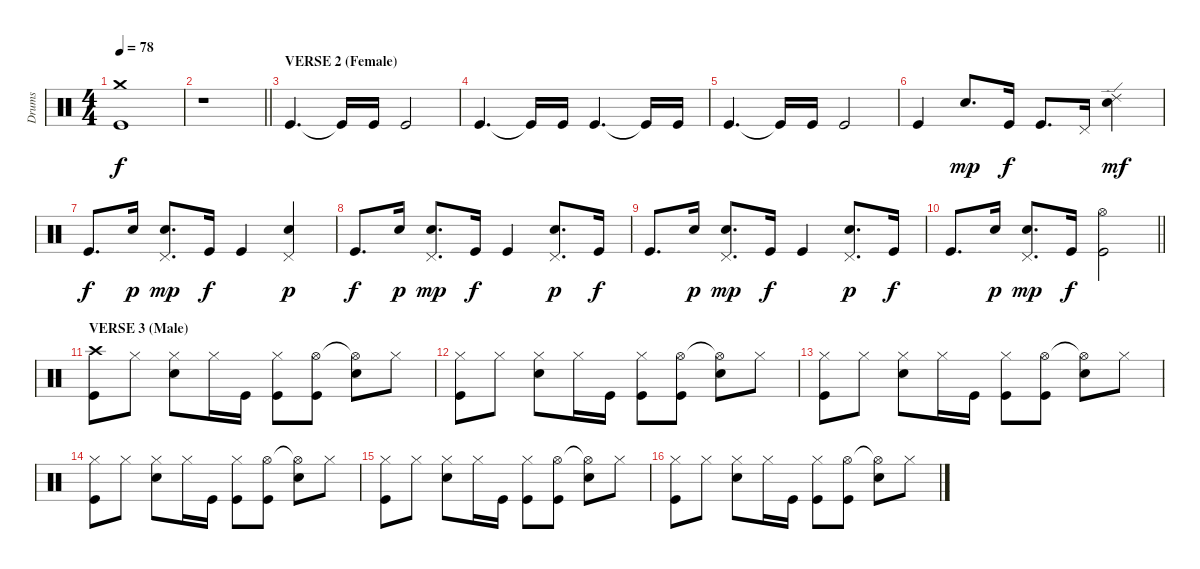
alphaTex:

\track ("Drums" "Drums") {instrument percussion}
\staff {score}
\articulation defaults
\ts (4 4)
\tempo 78
\clef neutral
\ks c
("Crash medium (hit)" "Kick (hit)").1{dy f} |
\barLineRight lightlight
r.1 |
\section ("" "VERSE 2 (Female)")
"Kick (hit)".4{d} "Kick (hit)"{t}.16 "Kick (hit)".16 "Kick (hit)".2 |
"Kick (hit)".4{d} "Kick (hit)"{t}.16 "Kick (hit)".16 "Kick (hit)".4{d} "Kick (hit)"{t}.16 "Kick (hit)".16 |
"Kick (hit)".4{d} "Kick (hit)"{t}.16 "Kick (hit)".16 "Kick (hit)".2 |
"Kick (hit)".4 "Electric Snare (hit)".8{d dy mp} "Kick (hit)".16{dy f} "Kick (hit)".8{d} "Pedal Hi-Hat (hit)".16 ("Snare (hit) 2" "Ride (edge) 2").4{dy mf} |
"Kick (hit)".8{d dy f} "Electric Snare (hit)".16{dy p} ("Pedal Hi-Hat (hit)" "Snare (hit) 2").8{d dy mp} "Kick (hit)".16{dy f} "Kick (hit)".4 ("Pedal Hi-Hat (hit)" "Snare (hit) 2").4{dy p} |
"Kick (hit)".8{d dy f} "Electric Snare (hit)".16{dy p} ("Pedal Hi-Hat (hit)" "Snare (hit) 2").8{d dy mp} "Kick (hit)".16{dy f} "Kick (hit)".4 ("Pedal Hi-Hat (hit)" "Snare (hit) 2").8{d dy p} "Kick (hit)".16{dy f} |
"Kick (hit)".8{d} "Electric Snare (hit)".16{dy p} ("Pedal Hi-Hat (hit)" "Snare (hit) 2").8{d dy mp} "Kick (hit)".16{dy f} "Kick (hit)".4 ("Pedal Hi-Hat (hit)" "Snare (hit) 2").8{d dy p} "Kick (hit)".16{dy f} |
\barLineRight lightlight "Kick (hit)".8{d} "Electric Snare (hit)".16{dy p}
("Pedal Hi-Hat (hit)" "Snare (hit) 2").8{d dy mp} "Kick (hit)".16{dy f} ("Kick (hit)" "Hi-Hat (open)").2 |
\section ("" "VERSE 3 (Male)")
("Crash high (hit)" "Kick (hit)").8 "Hi-Hat (closed)".8 ("Hi-Hat (closed)" "Snare (hit) 2").8 "Hi-Hat (closed)".16 "Kick (hit)".16 ("Hi-Hat (closed)" "Kick (hit)").8 ("Hi-Hat (open)" "Kick (hit)").8 ("Hi-Hat (open)"{t} "Snare (hit) 2").8 "Hi-Hat (closed)".8 |
("Hi-Hat (closed)" "Kick (hit)").8 "Hi-Hat (closed)".8 ("Hi-Hat (closed)" "Snare (hit) 2").8 "Hi-Hat (closed)".16 "Kick (hit)".16 ("Hi-Hat (closed)" "Kick (hit)").8 ("Hi-Hat (open)" "Kick (hit)").8 ("Hi-Hat (open)"{t} "Snare (hit) 2").8 "Hi-Hat (closed)".8 |
("Hi-Hat (closed)" "Kick (hit)").8 "Hi-Hat (closed)".8 ("Hi-Hat (closed)" "Snare (hit) 2").8 "Hi-Hat (closed)".16 "Kick (hit)".16 ("Hi-Hat (closed)" "Kick (hit)").8 ("Hi-Hat (open)" "Kick (hit)").8 ("Hi-Hat (open)"{t} "Snare (hit) 2").8 "Hi-Hat (closed)".8 |
("Hi-Hat (closed)" "Kick (hit)").8 "Hi-Hat (closed)".8 ("Hi-Hat (closed)" "Snare (hit) 2").8 "Hi-Hat (closed)".16 "Kick (hit)".16 ("Hi-Hat (closed)" "Kick (hit)").8 ("Hi-Hat (open)" "Kick (hit)").8 ("Hi-Hat (open)"{t} "Snare (hit) 2").8 "Hi-Hat (closed)".8 |
("Hi-Hat (closed)" "Kick (hit)").8 "Hi-Hat (closed)".8 ("Hi-Hat (closed)" "Snare (hit) 2").8 "Hi-Hat (closed)".16 "Kick (hit)".16 ("Hi-Hat (closed)" "Kick (hit)").8 ("Hi-Hat (open)" "Kick (hit)").8 ("Hi-Hat (open)"{t} "Snare (hit) 2").8 "Hi-Hat (closed)".8 |
("Hi-Hat (closed)" "Kick (hit)").8 "Hi-Hat (closed)".8 ("Hi-Hat (closed)" "Snare (hit) 2").8 "Hi-Hat (closed)".16 "Kick (hit)".16 ("Hi-Hat (closed)" "Kick (hit)").8 ("Hi-Hat (open)" "Kick (hit)").8 ("Hi-Hat (open)"{t} "Snare (hit) 2").8 "Hi-Hat (closed)".8
